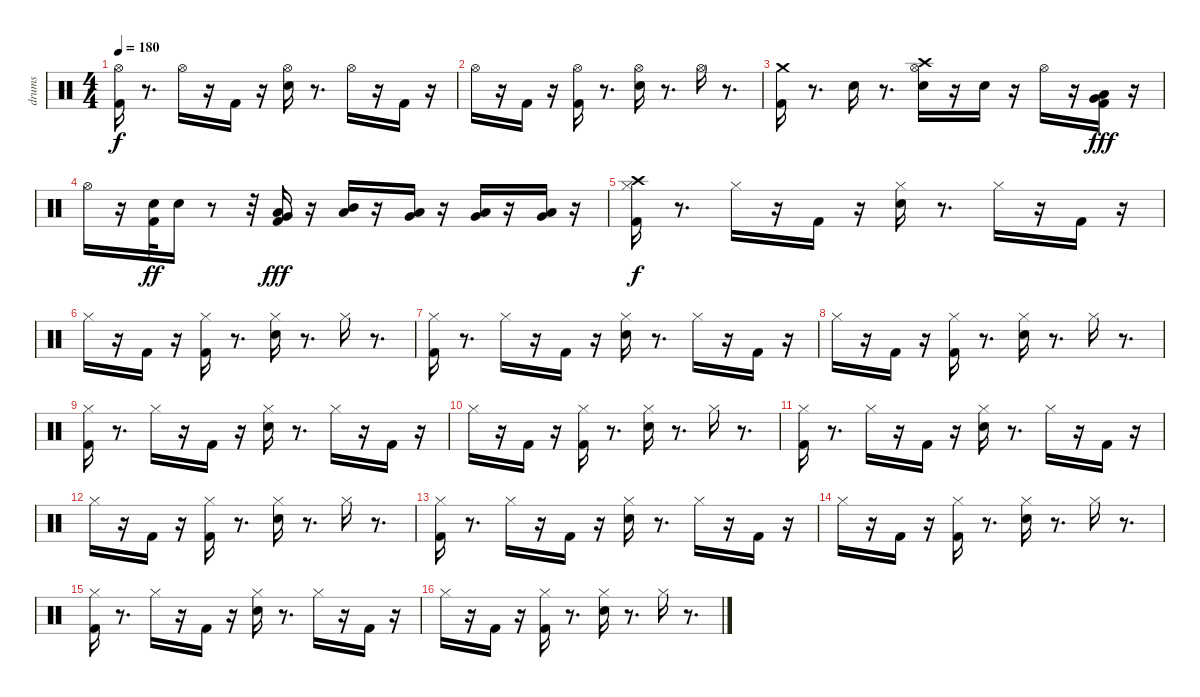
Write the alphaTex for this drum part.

\track ("drums" "drums") {instrument percussion}
\staff {score}
\articulation defaults
\ts (4 4)
\tempo 180
\clef neutral
\ks c
("Kick (hit) 2" "Hi-Hat (open)").16{dy f} r.8{d} "Hi-Hat (open)".16 r.16 "Kick (hit) 2".16 r.16 ("Electric Snare (hit)" "Hi-Hat (open)").16 r.8{d} "Hi-Hat (open)".16 r.16 "Kick (hit) 2".16 r.16 |
"Hi-Hat (open)".16 r.16 "Kick (hit) 2".16 r.16 ("Hi-Hat (open)" "Kick (hit) 2").16 r.8{d} ("Hi-Hat (open)" "Electric Snare (hit)").16 r.8{d} "Hi-Hat (open)".16 r.8{d} |
("Crash medium (hit)" "Kick (hit) 2").16 r.8{d} "Electric Snare (hit)".16 r.8{d} ("Crash high (hit)" "Hi-Hat (open)" "Electric Snare (hit)").16 r.16 "Electric Snare (hit)".16 r.16 "Hi-Hat (open)".16 r.16 ("Very Low Tom (hit)" "Low Floor Tom (hit)" "Kick (hit) 2").16{dy fff} r.16 |
"Hi-Hat (open)".16 r.16 ("Electric Snare (hit)" "Kick (hit) 2").32{dy ff} "Electric Snare (hit)".16 r.8 r.32 ("Low Tom (hit)" "Very Low Tom (hit)" "Kick (hit) 2").16{dy fff} r.16 ("Mid Tom (hit)" "Low Tom (hit)").16 r.16 ("Low Tom (hit)" "Very Low Tom (hit)").16 r.16 ("Low Tom (hit)" "Very Low Tom (hit)").16 r.16 ("Very Low Tom (hit)" "Low Floor Tom (hit)").16 r.16 |
("Kick (hit) 2" "Crash high (hit)" "Hi-Hat (closed)").16{dy f} r.8{d} "Hi-Hat (closed)".16 r.16 "Kick (hit) 2".16 r.16 ("Electric Snare (hit)" "Hi-Hat (closed)").16 r.8{d} "Hi-Hat (closed)".16 r.16 "Kick (hit) 2".16 r.16 |
"Hi-Hat (closed)".16 r.16 "Kick (hit) 2".16 r.16 ("Hi-Hat (closed)" "Kick (hit) 2").16 r.8{d} ("Hi-Hat (closed)" "Electric Snare (hit)").16 r.8{d} "Hi-Hat (closed)".16 r.8{d} |
("Kick (hit) 2" "Hi-Hat (closed)").16 r.8{d} "Hi-Hat (closed)".16 r.16 "Kick (hit) 2".16 r.16 ("Electric Snare (hit)" "Hi-Hat (closed)").16 r.8{d} "Hi-Hat (closed)".16 r.16 "Kick (hit) 2".16 r.16 |
"Hi-Hat (closed)".16 r.16 "Kick (hit) 2".16 r.16 ("Hi-Hat (closed)" "Kick (hit) 2").16 r.8{d} ("Hi-Hat (closed)" "Electric Snare (hit)").16 r.8{d} "Hi-Hat (closed)".16 r.8{d} |
("Kick (hit) 2" "Hi-Hat (closed)").16 r.8{d} "Hi-Hat (closed)".16 r.16 "Kick (hit) 2".16 r.16 ("Electric Snare (hit)" "Hi-Hat (closed)").16 r.8{d} "Hi-Hat (closed)".16 r.16 "Kick (hit) 2".16 r.16 |
"Hi-Hat (closed)".16 r.16 "Kick (hit) 2".16 r.16 ("Hi-Hat (closed)" "Kick (hit) 2").16 r.8{d} ("Hi-Hat (closed)" "Electric Snare (hit)").16 r.8{d} "Hi-Hat (closed)".16 r.8{d} |
("Kick (hit) 2" "Hi-Hat (closed)").16 r.8{d} "Hi-Hat (closed)".16 r.16 "Kick (hit) 2".16 r.16 ("Electric Snare (hit)" "Hi-Hat (closed)").16 r.8{d} "Hi-Hat (closed)".16 r.16 "Kick (hit) 2".16 r.16 |
"Hi-Hat (closed)".16 r.16 "Kick (hit) 2".16 r.16 ("Hi-Hat (closed)" "Kick (hit) 2").16 r.8{d} ("Hi-Hat (closed)" "Electric Snare (hit)").16 r.8{d} "Hi-Hat (closed)".16 r.8{d} |
("Kick (hit) 2" "Hi-Hat (closed)").16 r.8{d} "Hi-Hat (closed)".16 r.16 "Kick (hit) 2".16 r.16 ("Electric Snare (hit)" "Hi-Hat (closed)").16 r.8{d} "Hi-Hat (closed)".16 r.16 "Kick (hit) 2".16 r.16 |
"Hi-Hat (closed)".16 r.16 "Kick (hit) 2".16 r.16 ("Hi-Hat (closed)" "Kick (hit) 2").16 r.8{d} ("Hi-Hat (closed)" "Electric Snare (hit)").16 r.8{d} "Hi-Hat (closed)".16 r.8{d} |
("Kick (hit) 2" "Hi-Hat (closed)").16 r.8{d} "Hi-Hat (closed)".16 r.16 "Kick (hit) 2".16 r.16 ("Electric Snare (hit)" "Hi-Hat (closed)").16 r.8{d} "Hi-Hat (closed)".16 r.16 "Kick (hit) 2".16 r.16 |
"Hi-Hat (closed)".16 r.16 "Kick (hit) 2".16 r.16 ("Hi-Hat (closed)" "Kick (hit) 2").16 r.8{d} ("Hi-Hat (closed)" "Electric Snare (hit)").16 r.8{d} "Hi-Hat (closed)".16 r.8{d}
